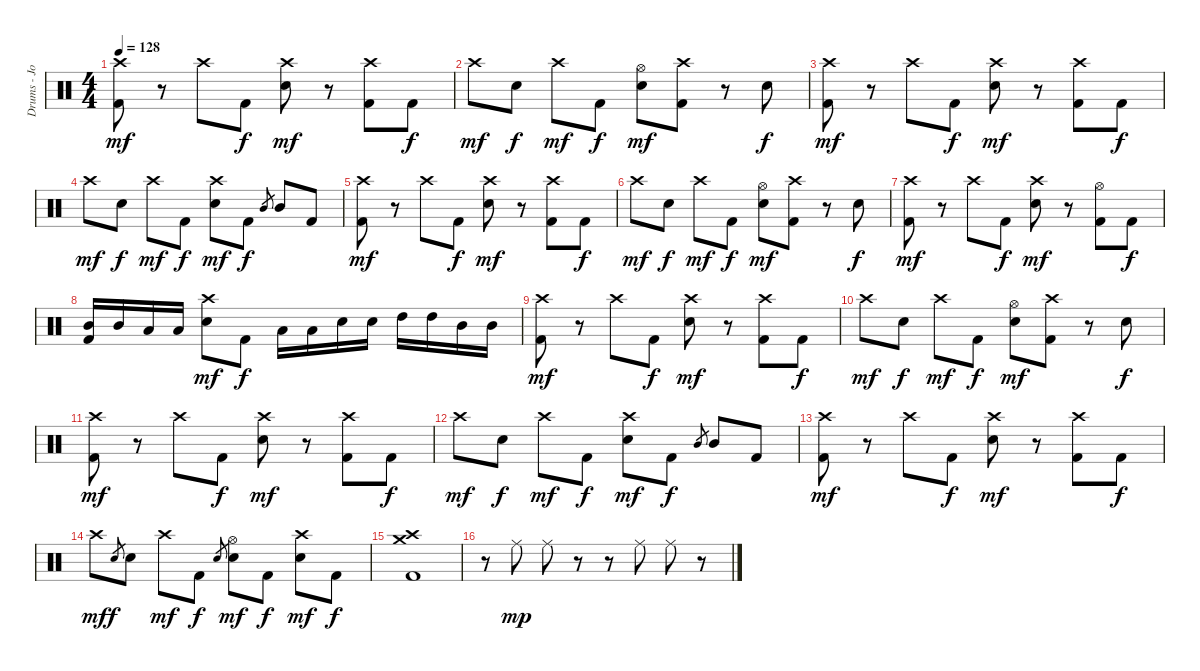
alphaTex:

\track ("Drums - John Humphrey" "Drums - Jo") {instrument percussion}
\staff {score}
\articulation defaults
\ts (4 4)
\tempo 128
\clef neutral
\ks c
("Crash high (hit)" "Kick (hit) 2").8{dy mf} r.8 "Crash high (hit)".8 "Kick (hit) 2".8{dy f} ("Crash high (hit)" "Electric Snare (hit)").8{dy mf} r.8 ("Crash high (hit)" "Kick (hit) 2").8 "Kick (hit) 2".8{dy f} |
"Crash high (hit)".8{dy mf} "Electric Snare (hit)".8{dy f} "Crash high (hit)".8{dy mf} "Kick (hit) 2".8{dy f} ("Hi-Hat (open)" "Electric Snare (hit)").8{dy mf} ("Crash high (hit)" "Kick (hit) 2").8 r.8 "Electric Snare (hit)".8{dy f} |
("Crash high (hit)" "Kick (hit) 2").8{dy mf} r.8 "Crash high (hit)".8 "Kick (hit) 2".8{dy f} ("Crash high (hit)" "Electric Snare (hit)").8{dy mf} r.8 ("Crash high (hit)" "Kick (hit) 2").8 "Kick (hit) 2".8{dy f} |
"Crash high (hit)".8{dy mf} "Electric Snare (hit)".8{dy f} "Crash high (hit)".8{dy mf} "Kick (hit) 2".8{dy f} ("Crash high (hit)" "Electric Snare (hit)").8{dy mf} "Kick (hit) 2".8{dy f} "Mid Tom (hit)".8{gr} "Mid Tom (hit)".8 "Kick (hit) 2".8 |
("Crash high (hit)" "Kick (hit) 2").8{dy mf} r.8 "Crash high (hit)".8 "Kick (hit) 2".8{dy f} ("Crash high (hit)" "Electric Snare (hit)").8{dy mf} r.8 ("Crash high (hit)" "Kick (hit) 2").8 "Kick (hit) 2".8{dy f} |
"Crash high (hit)".8{dy mf} "Electric Snare (hit)".8{dy f} "Crash high (hit)".8{dy mf} "Kick (hit) 2".8{dy f} ("Hi-Hat (open)" "Electric Snare (hit)").8{dy mf} ("Crash high (hit)" "Kick (hit) 2").8 r.8 "Electric Snare (hit)".8{dy f} |
("Crash high (hit)" "Kick (hit) 2").8{dy mf} r.8 "Crash high (hit)".8 "Kick (hit) 2".8{dy f} ("Crash high (hit)" "Electric Snare (hit)").8{dy mf} r.8 ("Hi-Hat (open)" "Kick (hit) 2").8 "Kick (hit) 2".8{dy f} |
("Mid Tom (hit)" "Kick (hit) 2").16 "Mid Tom (hit)".16 "Low Tom (hit)".16 "Low Tom (hit)".16 ("Crash high (hit)" "Electric Snare (hit)").8{dy mf} "Kick (hit) 2".8{dy f} "Low Tom (hit)".16 "Low Tom (hit)".16 "Electric Snare (hit)".16 "Electric Snare (hit)".16 "High Tom (hit)".16 "High Tom (hit)".16 "Mid Tom (hit)".16 "Mid Tom (hit)".16 |
("Crash high (hit)" "Kick (hit) 2").8{dy mf} r.8 "Crash high (hit)".8 "Kick (hit) 2".8{dy f} ("Crash high (hit)" "Electric Snare (hit)").8{dy mf} r.8 ("Crash high (hit)" "Kick (hit) 2").8 "Kick (hit) 2".8{dy f} |
"Crash high (hit)".8{dy mf} "Electric Snare (hit)".8{dy f} "Crash high (hit)".8{dy mf} "Kick (hit) 2".8{dy f} ("Hi-Hat (open)" "Electric Snare (hit)").8{dy mf} ("Crash high (hit)" "Kick (hit) 2").8 r.8 "Electric Snare (hit)".8{dy f} |
("Crash high (hit)" "Kick (hit) 2").8{dy mf} r.8 "Crash high (hit)".8 "Kick (hit) 2".8{dy f} ("Crash high (hit)" "Electric Snare (hit)").8{dy mf} r.8 ("Crash high (hit)" "Kick (hit) 2").8 "Kick (hit) 2".8{dy f} |
"Crash high (hit)".8{dy mf} "Electric Snare (hit)".8{dy f} "Crash high (hit)".8{dy mf} "Kick (hit) 2".8{dy f} ("Crash high (hit)" "Electric Snare (hit)").8{dy mf} "Kick (hit) 2".8{dy f} "Mid Tom (hit)".8{gr} "Mid Tom (hit)".8 "Kick (hit) 2".8 |
("Crash high (hit)" "Kick (hit) 2").8{dy mf} r.8 "Crash high (hit)".8 "Kick (hit) 2".8{dy f} ("Crash high (hit)" "Electric Snare (hit)").8{dy mf} r.8 ("Crash high (hit)" "Kick (hit) 2").8 "Kick (hit) 2".8{dy f} |
"Crash high (hit)".8{dy mf} "Electric Snare (hit)".8{gr dy f} "Electric Snare (hit)".8 "Crash high (hit)".8{dy mf} "Kick (hit) 2".8{dy f} "Electric Snare (hit)".8{gr} ("Hi-Hat (open)" "Electric Snare (hit)").8{dy mf} "Kick (hit) 2".8{dy f} ("Crash high (hit)" "Electric Snare (hit)").8{dy mf} "Kick (hit) 2".8{dy f} |
("Crash medium (hit)" "Crash high (hit)" "Kick (hit) 2").1 |
r.8 "Ride (middle)".8{dy mp} "Ride (middle)".8 r.8 r.8 "Ride (middle)".8 "Ride (middle)".8 r.8
